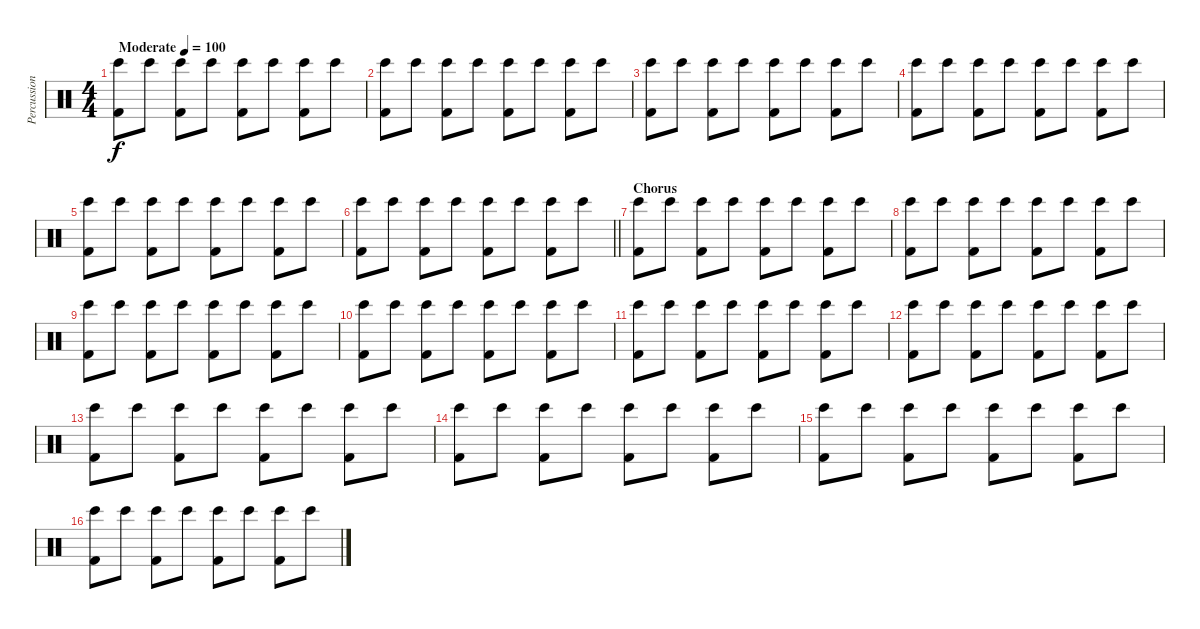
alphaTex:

\track ("Percussion" "Percussion") {instrument percussion}
\staff {score}
\articulation defaults
\ts (4 4)
\tempo (100 "Moderate")
\clef neutral
\ks c
("Bongo High (hit)" "Kick (hit) 2").8{dy f} "Bongo High (hit)".8 ("Bongo High (hit)" "Kick (hit) 2").8 "Bongo High (hit)".8 ("Bongo High (hit)" "Kick (hit) 2").8 "Bongo High (hit)".8 ("Bongo High (hit)" "Kick (hit) 2").8 "Bongo High (hit)".8 |
("Bongo High (hit)" "Kick (hit) 2").8 "Bongo High (hit)".8 ("Bongo High (hit)" "Kick (hit) 2").8 "Bongo High (hit)".8 ("Bongo High (hit)" "Kick (hit) 2").8 "Bongo High (hit)".8 ("Bongo High (hit)" "Kick (hit) 2").8 "Bongo High (hit)".8 |
("Bongo High (hit)" "Kick (hit) 2").8 "Bongo High (hit)".8 ("Bongo High (hit)" "Kick (hit) 2").8 "Bongo High (hit)".8 ("Bongo High (hit)" "Kick (hit) 2").8 "Bongo High (hit)".8 ("Bongo High (hit)" "Kick (hit) 2").8 "Bongo High (hit)".8 |
("Bongo High (hit)" "Kick (hit) 2").8 "Bongo High (hit)".8 ("Bongo High (hit)" "Kick (hit) 2").8 "Bongo High (hit)".8 ("Bongo High (hit)" "Kick (hit) 2").8 "Bongo High (hit)".8 ("Bongo High (hit)" "Kick (hit) 2").8 "Bongo High (hit)".8 |
("Bongo High (hit)" "Kick (hit) 2").8 "Bongo High (hit)".8 ("Bongo High (hit)" "Kick (hit) 2").8 "Bongo High (hit)".8 ("Bongo High (hit)" "Kick (hit) 2").8 "Bongo High (hit)".8 ("Bongo High (hit)" "Kick (hit) 2").8 "Bongo High (hit)".8 |
\barLineRight lightlight
("Bongo High (hit)" "Kick (hit) 2").8 "Bongo High (hit)".8 ("Bongo High (hit)" "Kick (hit) 2").8 "Bongo High (hit)".8 ("Bongo High (hit)" "Kick (hit) 2").8 "Bongo High (hit)".8 ("Bongo High (hit)" "Kick (hit) 2").8 "Bongo High (hit)".8 |
\section ("" "Chorus")
("Bongo High (hit)" "Kick (hit) 2").8 "Bongo High (hit)".8 ("Bongo High (hit)" "Kick (hit) 2").8 "Bongo High (hit)".8 ("Bongo High (hit)" "Kick (hit) 2").8 "Bongo High (hit)".8 ("Bongo High (hit)" "Kick (hit) 2").8 "Bongo High (hit)".8 |
("Bongo High (hit)" "Kick (hit) 2").8 "Bongo High (hit)".8 ("Bongo High (hit)" "Kick (hit) 2").8 "Bongo High (hit)".8 ("Bongo High (hit)" "Kick (hit) 2").8 "Bongo High (hit)".8 ("Bongo High (hit)" "Kick (hit) 2").8 "Bongo High (hit)".8 |
("Bongo High (hit)" "Kick (hit) 2").8 "Bongo High (hit)".8 ("Bongo High (hit)" "Kick (hit) 2").8 "Bongo High (hit)".8 ("Bongo High (hit)" "Kick (hit) 2").8 "Bongo High (hit)".8 ("Bongo High (hit)" "Kick (hit) 2").8 "Bongo High (hit)".8 |
("Bongo High (hit)" "Kick (hit) 2").8 "Bongo High (hit)".8 ("Bongo High (hit)" "Kick (hit) 2").8 "Bongo High (hit)".8 ("Bongo High (hit)" "Kick (hit) 2").8 "Bongo High (hit)".8 ("Bongo High (hit)" "Kick (hit) 2").8 "Bongo High (hit)".8 |
("Bongo High (hit)" "Kick (hit) 2").8 "Bongo High (hit)".8 ("Bongo High (hit)" "Kick (hit) 2").8 "Bongo High (hit)".8 ("Bongo High (hit)" "Kick (hit) 2").8 "Bongo High (hit)".8 ("Bongo High (hit)" "Kick (hit) 2").8 "Bongo High (hit)".8 |
("Bongo High (hit)" "Kick (hit) 2").8 "Bongo High (hit)".8 ("Bongo High (hit)" "Kick (hit) 2").8 "Bongo High (hit)".8 ("Bongo High (hit)" "Kick (hit) 2").8 "Bongo High (hit)".8 ("Bongo High (hit)" "Kick (hit) 2").8 "Bongo High (hit)".8 |
("Bongo High (hit)" "Kick (hit) 2").8 "Bongo High (hit)".8 ("Bongo High (hit)" "Kick (hit) 2").8 "Bongo High (hit)".8 ("Bongo High (hit)" "Kick (hit) 2").8 "Bongo High (hit)".8 ("Bongo High (hit)" "Kick (hit) 2").8 "Bongo High (hit)".8 |
("Bongo High (hit)" "Kick (hit) 2").8 "Bongo High (hit)".8 ("Bongo High (hit)" "Kick (hit) 2").8 "Bongo High (hit)".8 ("Bongo High (hit)" "Kick (hit) 2").8 "Bongo High (hit)".8 ("Bongo High (hit)" "Kick (hit) 2").8 "Bongo High (hit)".8 |
("Bongo High (hit)" "Kick (hit) 2").8 "Bongo High (hit)".8 ("Bongo High (hit)" "Kick (hit) 2").8 "Bongo High (hit)".8 ("Bongo High (hit)" "Kick (hit) 2").8 "Bongo High (hit)".8 ("Bongo High (hit)" "Kick (hit) 2").8 "Bongo High (hit)".8 |
("Bongo High (hit)" "Kick (hit) 2").8 "Bongo High (hit)".8 ("Bongo High (hit)" "Kick (hit) 2").8 "Bongo High (hit)".8 ("Bongo High (hit)" "Kick (hit) 2").8 "Bongo High (hit)".8 ("Bongo High (hit)" "Kick (hit) 2").8 "Bongo High (hit)".8
